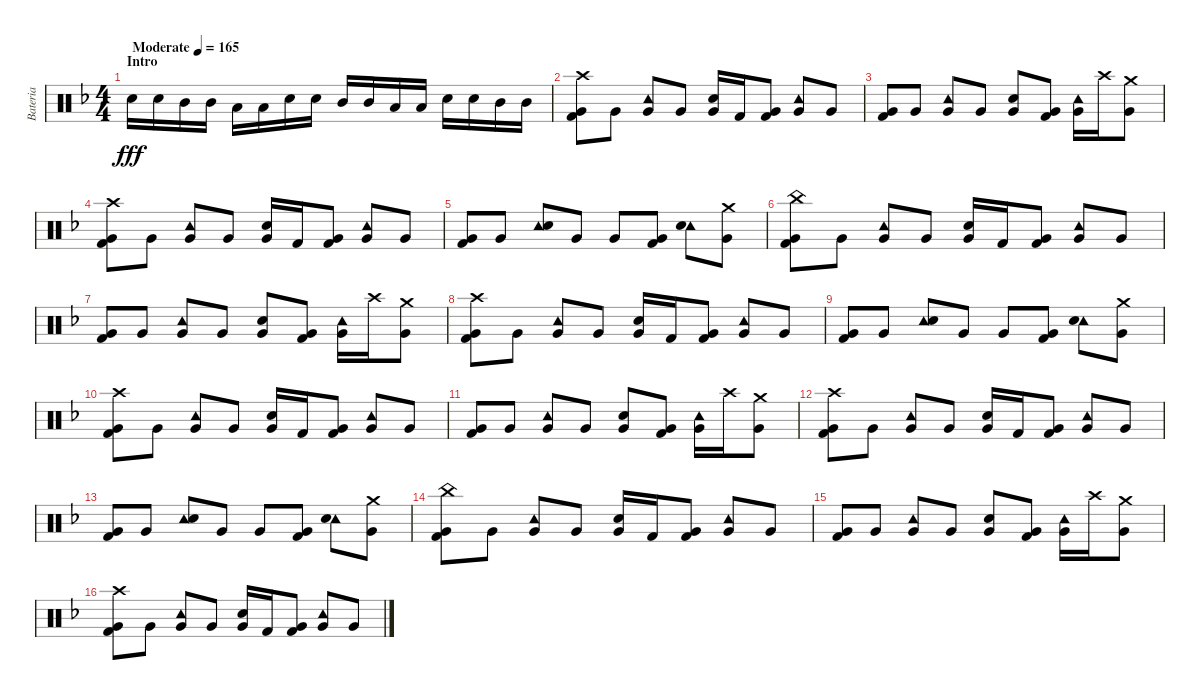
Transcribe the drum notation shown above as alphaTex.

\track ("Bateria" "Bateria") {instrument percussion}
\staff {score}
\articulation defaults
\ts (4 4)
\section ("" "Intro")
\tempo (165 "Moderate")
\clef neutral
\ks f "Snare (hit) 2".16{dy fff} "Snare (hit) 2".16 "Mid Tom (hit)".16 "Mid Tom (hit)".16 "Low Tom (hit)".16 "Low Tom (hit)".16 "Snare (hit) 2".16 "Snare (hit) 2".16 "Mid Tom (hit)".16 "Mid Tom (hit)".16 "Low Tom (hit)".16 "Low Tom (hit)".16 "Snare (hit) 2".16 "Snare (hit) 2".16 "Mid Tom (hit)".16 "Mid Tom (hit)".16
|
("Crash high (hit)" "Very Low Tom (hit)" "Kick (hit) 2").8 "Very Low Tom (hit)".8 ("Tambourine (hit)" "Very Low Tom (hit)").8 "Very Low Tom (hit)".8 ("Snare (hit) 2" "Very Low Tom (hit)").16 "Kick (hit) 2".16 ("Very Low Tom (hit)" "Kick (hit) 2").8 ("Tambourine (hit)" "Very Low Tom (hit)").8 "Very Low Tom (hit)".8 |
("Very Low Tom (hit)" "Kick (hit) 2").8 "Very Low Tom (hit)".8 ("Tambourine (hit)" "Very Low Tom (hit)").8 "Very Low Tom (hit)".8 ("Snare (hit) 2" "Very Low Tom (hit)").8 ("Very Low Tom (hit)" "Kick (hit) 2").8 ("Tambourine (hit)" "Very Low Tom (hit)").16 "Crash high (hit)".16 ("Crash medium (hit)" "Very Low Tom (hit)").8 |
("Crash high (hit)" "Very Low Tom (hit)" "Kick (hit) 2").8 "Very Low Tom (hit)".8 ("Tambourine (hit)" "Very Low Tom (hit)").8 "Very Low Tom (hit)".8 ("Snare (hit) 2" "Very Low Tom (hit)").16 "Kick (hit) 2".16 ("Very Low Tom (hit)" "Kick (hit) 2").8 ("Tambourine (hit)" "Very Low Tom (hit)").8 "Very Low Tom (hit)".8 |
("Very Low Tom (hit)" "Kick (hit) 2").8 "Very Low Tom (hit)".8 ("Tambourine (hit)" "Snare (hit) 2").8 "Very Low Tom (hit)".8 "Very Low Tom (hit)".8 ("Very Low Tom (hit)" "Kick (hit) 2").8 ("Tambourine (hit)" "Snare (hit) 2").8 ("Crash medium (hit)" "Very Low Tom (hit)").8 |
("China (hit)" "Very Low Tom (hit)" "Kick (hit) 2").8 "Very Low Tom (hit)".8 ("Tambourine (hit)" "Very Low Tom (hit)").8 "Very Low Tom (hit)".8 ("Snare (hit) 2" "Very Low Tom (hit)").16 "Kick (hit) 2".16 ("Very Low Tom (hit)" "Kick (hit) 2").8 ("Tambourine (hit)" "Very Low Tom (hit)").8 "Very Low Tom (hit)".8 |
("Very Low Tom (hit)" "Kick (hit) 2").8 "Very Low Tom (hit)".8 ("Tambourine (hit)" "Very Low Tom (hit)").8 "Very Low Tom (hit)".8 ("Snare (hit) 2" "Very Low Tom (hit)").8 ("Very Low Tom (hit)" "Kick (hit) 2").8 ("Tambourine (hit)" "Very Low Tom (hit)").16 "Crash high (hit)".16 ("Crash medium (hit)" "Very Low Tom (hit)").8 |
("Crash high (hit)" "Very Low Tom (hit)" "Kick (hit) 2").8 "Very Low Tom (hit)".8 ("Tambourine (hit)" "Very Low Tom (hit)").8 "Very Low Tom (hit)".8 ("Snare (hit) 2" "Very Low Tom (hit)").16 "Kick (hit) 2".16 ("Very Low Tom (hit)" "Kick (hit) 2").8 ("Tambourine (hit)" "Very Low Tom (hit)").8 "Very Low Tom (hit)".8 |
("Very Low Tom (hit)" "Kick (hit) 2").8 "Very Low Tom (hit)".8 ("Tambourine (hit)" "Snare (hit) 2").8 "Very Low Tom (hit)".8 "Very Low Tom (hit)".8 ("Very Low Tom (hit)" "Kick (hit) 2").8 ("Tambourine (hit)" "Snare (hit) 2").8 ("Crash medium (hit)" "Very Low Tom (hit)").8 |
("Crash high (hit)" "Very Low Tom (hit)" "Kick (hit) 2").8 "Very Low Tom (hit)".8 ("Tambourine (hit)" "Very Low Tom (hit)").8 "Very Low Tom (hit)".8 ("Snare (hit) 2" "Very Low Tom (hit)").16 "Kick (hit) 2".16 ("Very Low Tom (hit)" "Kick (hit) 2").8 ("Tambourine (hit)" "Very Low Tom (hit)").8 "Very Low Tom (hit)".8 |
("Very Low Tom (hit)" "Kick (hit) 2").8 "Very Low Tom (hit)".8 ("Tambourine (hit)" "Very Low Tom (hit)").8 "Very Low Tom (hit)".8 ("Snare (hit) 2" "Very Low Tom (hit)").8 ("Very Low Tom (hit)" "Kick (hit) 2").8 ("Tambourine (hit)" "Very Low Tom (hit)").16 "Crash high (hit)".16 ("Crash medium (hit)" "Very Low Tom (hit)").8 |
("Crash high (hit)" "Very Low Tom (hit)" "Kick (hit) 2").8 "Very Low Tom (hit)".8 ("Tambourine (hit)" "Very Low Tom (hit)").8 "Very Low Tom (hit)".8 ("Snare (hit) 2" "Very Low Tom (hit)").16 "Kick (hit) 2".16 ("Very Low Tom (hit)" "Kick (hit) 2").8 ("Tambourine (hit)" "Very Low Tom (hit)").8 "Very Low Tom (hit)".8 |
("Very Low Tom (hit)" "Kick (hit) 2").8 "Very Low Tom (hit)".8 ("Tambourine (hit)" "Snare (hit) 2").8 "Very Low Tom (hit)".8 "Very Low Tom (hit)".8 ("Very Low Tom (hit)" "Kick (hit) 2").8 ("Tambourine (hit)" "Snare (hit) 2").8 ("Crash medium (hit)" "Very Low Tom (hit)").8 |
("China (hit)" "Very Low Tom (hit)" "Kick (hit) 2").8 "Very Low Tom (hit)".8 ("Tambourine (hit)" "Very Low Tom (hit)").8 "Very Low Tom (hit)".8 ("Snare (hit) 2" "Very Low Tom (hit)").16 "Kick (hit) 2".16 ("Very Low Tom (hit)" "Kick (hit) 2").8 ("Tambourine (hit)" "Very Low Tom (hit)").8 "Very Low Tom (hit)".8 |
("Very Low Tom (hit)" "Kick (hit) 2").8 "Very Low Tom (hit)".8 ("Tambourine (hit)" "Very Low Tom (hit)").8 "Very Low Tom (hit)".8 ("Snare (hit) 2" "Very Low Tom (hit)").8 ("Very Low Tom (hit)" "Kick (hit) 2").8 ("Tambourine (hit)" "Very Low Tom (hit)").16 "Crash high (hit)".16 ("Crash medium (hit)" "Very Low Tom (hit)").8 |
("Crash high (hit)" "Very Low Tom (hit)" "Kick (hit) 2").8 "Very Low Tom (hit)".8 ("Tambourine (hit)" "Very Low Tom (hit)").8 "Very Low Tom (hit)".8 ("Snare (hit) 2" "Very Low Tom (hit)").16 "Kick (hit) 2".16 ("Very Low Tom (hit)" "Kick (hit) 2").8 ("Tambourine (hit)" "Very Low Tom (hit)").8 "Very Low Tom (hit)".8
